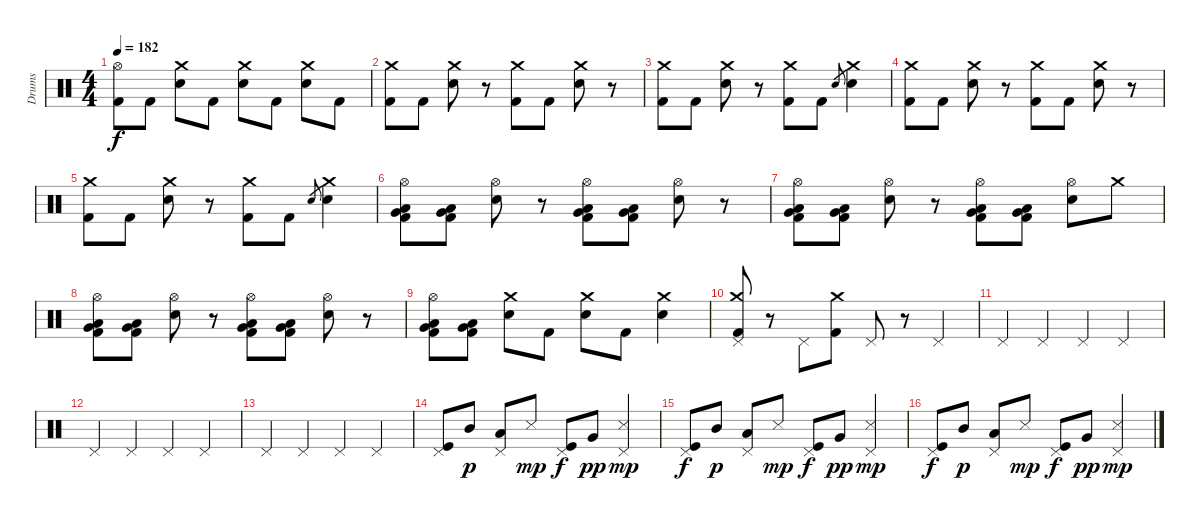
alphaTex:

\track ("Drums" "Drums") {instrument percussion}
\staff {score}
\articulation defaults
\ts (4 4)
\tempo 182
\clef neutral
\ks c
("Hi-Hat (open)" "Kick (hit) 2").8{dy f} "Kick (hit) 2".8 ("Crash medium (hit)" "Snare (hit) 2").8 "Kick (hit) 2".8 ("Crash medium (hit)" "Snare (hit) 2").8 "Kick (hit) 2".8 ("Crash medium (hit)" "Snare (hit) 2").8 "Kick (hit) 2".8 |
("Crash medium (hit)" "Kick (hit) 2").8 "Kick (hit) 2".8 ("Crash medium (hit)" "Snare (hit) 2").8 r.8 ("Crash medium (hit)" "Kick (hit) 2").8 "Kick (hit) 2".8 ("Crash medium (hit)" "Snare (hit) 2").8 r.8 |
("Crash medium (hit)" "Kick (hit) 2").8 "Kick (hit) 2".8 ("Crash medium (hit)" "Snare (hit) 2").8 r.8 ("Crash medium (hit)" "Kick (hit) 2").8 "Kick (hit) 2".8 "Snare (hit) 2".8{gr} ("Crash medium (hit)" "Snare (hit) 2").4 |
("Crash medium (hit)" "Kick (hit) 2").8 "Kick (hit) 2".8 ("Crash medium (hit)" "Snare (hit) 2").8 r.8 ("Crash medium (hit)" "Kick (hit) 2").8 "Kick (hit) 2".8 ("Crash medium (hit)" "Snare (hit) 2").8 r.8 |
("Crash medium (hit)" "Kick (hit) 2").8 "Kick (hit) 2".8 ("Crash medium (hit)" "Snare (hit) 2").8 r.8 ("Crash medium (hit)" "Kick (hit) 2").8 "Kick (hit) 2".8 "Snare (hit) 2".8{gr} ("Crash medium (hit)" "Snare (hit) 2").4 |
("Hi-Hat (open)" "Very Low Tom (hit)" "Low Tom (hit)" "Kick (hit) 2").8 ("Very Low Tom (hit)" "Low Tom (hit)" "Kick (hit) 2").8 ("Hi-Hat (open)" "Snare (hit) 2").8 r.8 ("Hi-Hat (open)" "Very Low Tom (hit)" "Low Tom (hit)" "Kick (hit) 2").8 ("Very Low Tom (hit)" "Low Tom (hit)" "Kick (hit) 2").8 ("Hi-Hat (open)" "Snare (hit) 2").8 r.8 |
("Hi-Hat (open)" "Very Low Tom (hit)" "Low Tom (hit)" "Kick (hit) 2").8 ("Very Low Tom (hit)" "Low Tom (hit)" "Kick (hit) 2").8 ("Hi-Hat (open)" "Snare (hit) 2").8 r.8 ("Hi-Hat (open)" "Very Low Tom (hit)" "Low Tom (hit)" "Kick (hit) 2").8 ("Very Low Tom (hit)" "Low Tom (hit)" "Kick (hit) 2").8 ("Hi-Hat (open)" "Snare (hit) 2").8 "Crash medium (hit)".8 |
("Hi-Hat (open)" "Very Low Tom (hit)" "Low Tom (hit)" "Kick (hit) 2").8 ("Very Low Tom (hit)" "Low Tom (hit)" "Kick (hit) 2").8 ("Hi-Hat (open)" "Snare (hit) 2").8 r.8 ("Hi-Hat (open)" "Very Low Tom (hit)" "Low Tom (hit)" "Kick (hit) 2").8 ("Very Low Tom (hit)" "Low Tom (hit)" "Kick (hit) 2").8 ("Hi-Hat (open)" "Snare (hit) 2").8 r.8 |
("Hi-Hat (open)" "Very Low Tom (hit)" "Low Tom (hit)" "Kick (hit) 2").8 ("Very Low Tom (hit)" "Low Tom (hit)" "Kick (hit) 2").8 ("Crash medium (hit)" "Snare (hit) 2").8 "Kick (hit) 2".8 ("Crash medium (hit)" "Snare (hit) 2").8 "Kick (hit) 2".8 ("Crash medium (hit)" "Snare (hit) 2").4 |
("Crash medium (hit)" "Pedal Hi-Hat (hit)" "Kick (hit) 2").8{volume 11} r.8 "Pedal Hi-Hat (hit)".8 ("Crash medium (hit)" "Kick (hit) 2").8 "Pedal Hi-Hat (hit)".8 r.8 "Pedal Hi-Hat (hit)".4 |
"Pedal Hi-Hat (hit)".4 "Pedal Hi-Hat (hit)".4 "Pedal Hi-Hat (hit)".4 "Pedal Hi-Hat (hit)".4 |
"Pedal Hi-Hat (hit)".4 "Pedal Hi-Hat (hit)".4 "Pedal Hi-Hat (hit)".4 "Pedal Hi-Hat (hit)".4 |
"Pedal Hi-Hat (hit)".4 "Pedal Hi-Hat (hit)".4 "Pedal Hi-Hat (hit)".4 "Pedal Hi-Hat (hit)".4 |
("Pedal Hi-Hat (hit)" "Kick (hit)").8 "Mid Tom (hit)".8{dy p} ("Pedal Hi-Hat (hit)" "Low Tom (hit)").8 "Snare (side stick) 3".8{dy mp} ("Pedal Hi-Hat (hit)" "Kick (hit)").8{dy f} "Very Low Tom (hit)".8{dy pp} ("Pedal Hi-Hat (hit)" "Snare (side stick) 3").4{dy mp} |
("Pedal Hi-Hat (hit)" "Kick (hit)").8{dy f} "Mid Tom (hit)".8{dy p} ("Pedal Hi-Hat (hit)" "Low Tom (hit)").8 "Snare (side stick) 3".8{dy mp} ("Pedal Hi-Hat (hit)" "Kick (hit)").8{dy f} "Very Low Tom (hit)".8{dy pp} ("Pedal Hi-Hat (hit)" "Snare (side stick) 3").4{dy mp} |
("Pedal Hi-Hat (hit)" "Kick (hit)").8{dy f} "Mid Tom (hit)".8{dy p} ("Pedal Hi-Hat (hit)" "Low Tom (hit)").8 "Snare (side stick) 3".8{dy mp} ("Pedal Hi-Hat (hit)" "Kick (hit)").8{dy f} "Very Low Tom (hit)".8{dy pp} ("Pedal Hi-Hat (hit)" "Snare (side stick) 3").4{dy mp}
